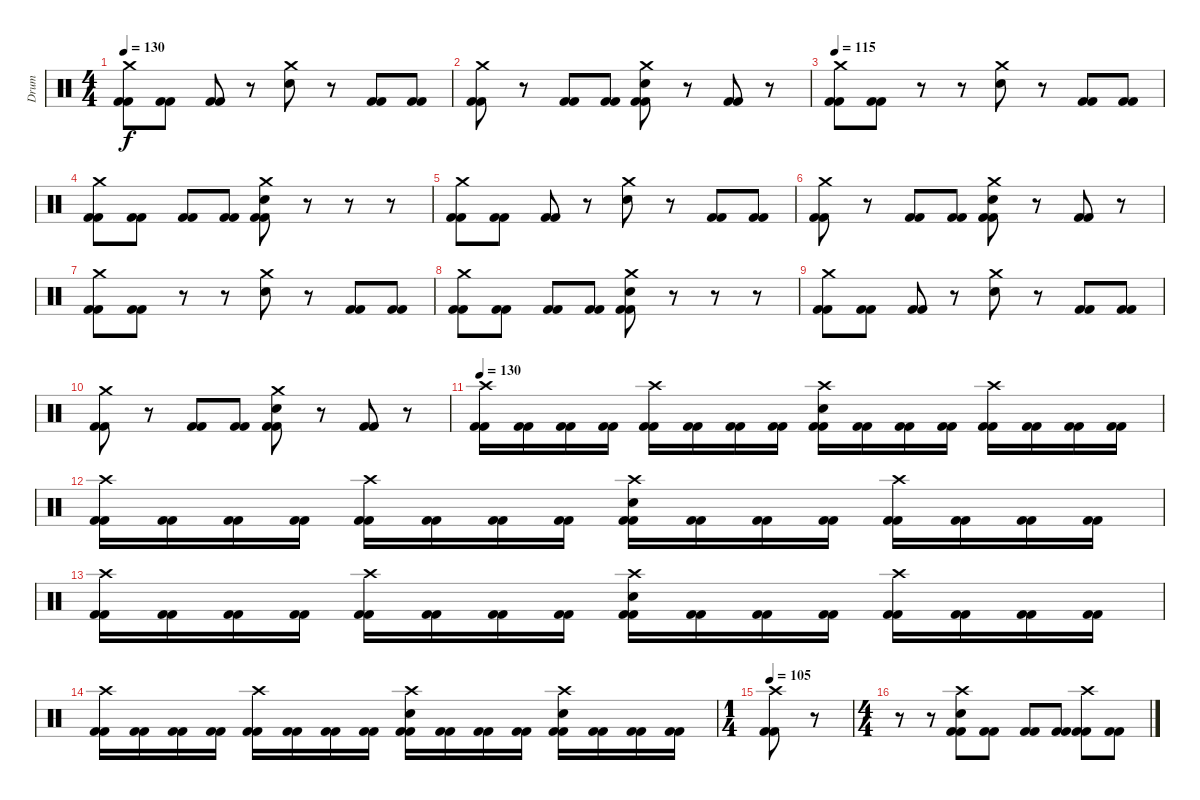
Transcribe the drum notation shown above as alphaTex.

\track ("Drum" "Drum") {instrument percussion}
\staff {score}
\articulation defaults
\ts (4 4)
\tempo 130
\clef neutral
\ks c
("Crash medium (hit)" "Kick (hit) 2" "Kick (hit) 2").8{dy f} ("Kick (hit) 2" "Kick (hit) 2").8 ("Kick (hit) 2" "Kick (hit) 2").8 r.8 ("Crash medium (hit)" "Electric Snare (hit)").8 r.8 ("Kick (hit) 2" "Kick (hit) 2").8 ("Kick (hit) 2" "Kick (hit) 2").8 |
("Crash medium (hit)" "Kick (hit) 2" "Kick (hit) 2").8 r.8 ("Kick (hit) 2" "Kick (hit) 2").8 ("Kick (hit) 2" "Kick (hit) 2").8 ("Crash medium (hit)" "Electric Snare (hit)" "Kick (hit) 2" "Kick (hit) 2").8 r.8 ("Kick (hit) 2" "Kick (hit) 2").8 r.8 |
\tempo 115
("Crash medium (hit)" "Kick (hit) 2" "Kick (hit) 2").8 ("Kick (hit) 2" "Kick (hit) 2").8 r.8 r.8 ("Crash medium (hit)" "Electric Snare (hit)").8 r.8 ("Kick (hit) 2" "Kick (hit) 2").8 ("Kick (hit) 2" "Kick (hit) 2").8 |
("Crash medium (hit)" "Kick (hit) 2" "Kick (hit) 2").8 ("Kick (hit) 2" "Kick (hit) 2").8 ("Kick (hit) 2" "Kick (hit) 2").8 ("Kick (hit) 2" "Kick (hit) 2").8 ("Crash medium (hit)" "Electric Snare (hit)" "Kick (hit) 2" "Kick (hit) 2").8 r.8 r.8 r.8 |
("Crash medium (hit)" "Kick (hit) 2" "Kick (hit) 2").8 ("Kick (hit) 2" "Kick (hit) 2").8 ("Kick (hit) 2" "Kick (hit) 2").8 r.8 ("Crash medium (hit)" "Electric Snare (hit)").8 r.8 ("Kick (hit) 2" "Kick (hit) 2").8 ("Kick (hit) 2" "Kick (hit) 2").8 |
("Crash medium (hit)" "Kick (hit) 2" "Kick (hit) 2").8 r.8 ("Kick (hit) 2" "Kick (hit) 2").8 ("Kick (hit) 2" "Kick (hit) 2").8 ("Crash medium (hit)" "Electric Snare (hit)" "Kick (hit) 2" "Kick (hit) 2").8 r.8 ("Kick (hit) 2" "Kick (hit) 2").8 r.8 |
("Crash medium (hit)" "Kick (hit) 2" "Kick (hit) 2").8 ("Kick (hit) 2" "Kick (hit) 2").8 r.8 r.8 ("Crash medium (hit)" "Electric Snare (hit)").8 r.8 ("Kick (hit) 2" "Kick (hit) 2").8 ("Kick (hit) 2" "Kick (hit) 2").8 |
("Crash medium (hit)" "Kick (hit) 2" "Kick (hit) 2").8 ("Kick (hit) 2" "Kick (hit) 2").8 ("Kick (hit) 2" "Kick (hit) 2").8 ("Kick (hit) 2" "Kick (hit) 2").8 ("Crash medium (hit)" "Electric Snare (hit)" "Kick (hit) 2" "Kick (hit) 2").8 r.8 r.8 r.8 |
("Crash medium (hit)" "Kick (hit) 2" "Kick (hit) 2").8 ("Kick (hit) 2" "Kick (hit) 2").8 ("Kick (hit) 2" "Kick (hit) 2").8 r.8 ("Crash medium (hit)" "Electric Snare (hit)").8 r.8 ("Kick (hit) 2" "Kick (hit) 2").8 ("Kick (hit) 2" "Kick (hit) 2").8 |
("Crash medium (hit)" "Kick (hit) 2" "Kick (hit) 2").8 r.8 ("Kick (hit) 2" "Kick (hit) 2").8 ("Kick (hit) 2" "Kick (hit) 2").8 ("Crash medium (hit)" "Electric Snare (hit)" "Kick (hit) 2" "Kick (hit) 2").8 r.8 ("Kick (hit) 2" "Kick (hit) 2").8 r.8 |
\tempo 130
("Crash high (hit)" "Kick (hit) 2" "Kick (hit) 2").16 ("Kick (hit) 2" "Kick (hit) 2").16 ("Kick (hit) 2" "Kick (hit) 2").16 ("Kick (hit) 2" "Kick (hit) 2").16 ("Crash high (hit)" "Kick (hit) 2" "Kick (hit) 2").16 ("Kick (hit) 2" "Kick (hit) 2").16 ("Kick (hit) 2" "Kick (hit) 2").16 ("Kick (hit) 2" "Kick (hit) 2").16 ("Crash high (hit)" "Electric Snare (hit)" "Kick (hit) 2" "Kick (hit) 2").16 ("Kick (hit) 2" "Kick (hit) 2").16 ("Kick (hit) 2" "Kick (hit) 2").16 ("Kick (hit) 2" "Kick (hit) 2").16 ("Crash high (hit)" "Kick (hit) 2" "Kick (hit) 2").16 ("Kick (hit) 2" "Kick (hit) 2").16 ("Kick (hit) 2" "Kick (hit) 2").16 ("Kick (hit) 2" "Kick (hit) 2").16 |
("Crash high (hit)" "Kick (hit) 2" "Kick (hit) 2").16 ("Kick (hit) 2" "Kick (hit) 2").16 ("Kick (hit) 2" "Kick (hit) 2").16 ("Kick (hit) 2" "Kick (hit) 2").16 ("Crash high (hit)" "Kick (hit) 2" "Kick (hit) 2").16 ("Kick (hit) 2" "Kick (hit) 2").16 ("Kick (hit) 2" "Kick (hit) 2").16 ("Kick (hit) 2" "Kick (hit) 2").16 ("Crash high (hit)" "Electric Snare (hit)" "Kick (hit) 2" "Kick (hit) 2").16 ("Kick (hit) 2" "Kick (hit) 2").16 ("Kick (hit) 2" "Kick (hit) 2").16 ("Kick (hit) 2" "Kick (hit) 2").16 ("Crash high (hit)" "Kick (hit) 2" "Kick (hit) 2").16 ("Kick (hit) 2" "Kick (hit) 2").16 ("Kick (hit) 2" "Kick (hit) 2").16 ("Kick (hit) 2" "Kick (hit) 2").16 |
("Crash high (hit)" "Kick (hit) 2" "Kick (hit) 2").16 ("Kick (hit) 2" "Kick (hit) 2").16 ("Kick (hit) 2" "Kick (hit) 2").16 ("Kick (hit) 2" "Kick (hit) 2").16 ("Crash high (hit)" "Kick (hit) 2" "Kick (hit) 2").16 ("Kick (hit) 2" "Kick (hit) 2").16 ("Kick (hit) 2" "Kick (hit) 2").16 ("Kick (hit) 2" "Kick (hit) 2").16 ("Crash high (hit)" "Electric Snare (hit)" "Kick (hit) 2" "Kick (hit) 2").16 ("Kick (hit) 2" "Kick (hit) 2").16 ("Kick (hit) 2" "Kick (hit) 2").16 ("Kick (hit) 2" "Kick (hit) 2").16 ("Crash high (hit)" "Kick (hit) 2" "Kick (hit) 2").16 ("Kick (hit) 2" "Kick (hit) 2").16 ("Kick (hit) 2" "Kick (hit) 2").16 ("Kick (hit) 2" "Kick (hit) 2").16 |
("Crash high (hit)" "Kick (hit) 2" "Kick (hit) 2").16 ("Kick (hit) 2" "Kick (hit) 2").16 ("Kick (hit) 2" "Kick (hit) 2").16 ("Kick (hit) 2" "Kick (hit) 2").16 ("Crash high (hit)" "Kick (hit) 2" "Kick (hit) 2").16 ("Kick (hit) 2" "Kick (hit) 2").16 ("Kick (hit) 2" "Kick (hit) 2").16 ("Kick (hit) 2" "Kick (hit) 2").16 ("Crash high (hit)" "Electric Snare (hit)" "Kick (hit) 2" "Kick (hit) 2").16 ("Kick (hit) 2" "Kick (hit) 2").16 ("Kick (hit) 2" "Kick (hit) 2").16 ("Kick (hit) 2" "Kick (hit) 2").16 ("Crash high (hit)" "Electric Snare (hit)" "Kick (hit) 2" "Kick (hit) 2").16 ("Kick (hit) 2" "Kick (hit) 2").16 ("Kick (hit) 2" "Kick (hit) 2").16 ("Kick (hit) 2" "Kick (hit) 2").16 |
\ts (1 4)
\tempo 105
("Crash high (hit)" "Kick (hit) 2" "Kick (hit) 2").8 r.8 |
\ts (4 4)
r.8 r.8 ("Crash high (hit)" "Electric Snare (hit)" "Kick (hit) 2" "Kick (hit) 2").8 ("Kick (hit) 2" "Kick (hit) 2").8 ("Kick (hit) 2" "Kick (hit) 2").8 ("Kick (hit) 2" "Kick (hit) 2").8 ("Crash high (hit)" "Kick (hit) 2" "Kick (hit) 2").8 ("Kick (hit) 2" "Kick (hit) 2").8
